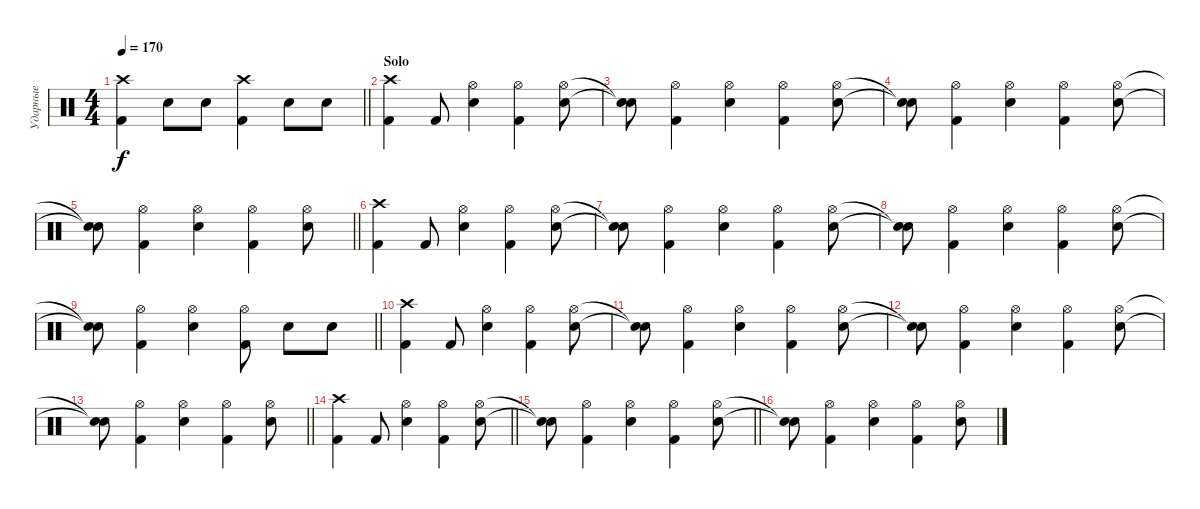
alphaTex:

\track ("Ударные" "Ударные") {instrument percussion}
\staff {score}
\articulation defaults
\ts (4 4)
\tempo 170
\clef neutral
\barLineRight lightlight
\ks c
("Crash high (hit)" "Kick (hit) 2").4{dy f} "Snare (hit) 2".8 "Snare (hit) 2".8 ("Crash high (hit)" "Kick (hit) 2").4 "Snare (hit) 2".8 "Snare (hit) 2".8 |
\section ("" "Solo")
("Crash high (hit)" "Kick (hit) 2").4 "Kick (hit) 2".8 ("Hi-Hat (open)" "Snare (hit) 2").4 ("Hi-Hat (open)" "Kick (hit) 2").4 ("Hi-Hat (open)" "Snare (hit) 2").8 |
("Snare (hit)"{t} "Snare (hit)"{t}).8 ("Hi-Hat (open)" "Kick (hit) 2").4 ("Hi-Hat (open)" "Snare (hit) 2").4 ("Hi-Hat (open)" "Kick (hit) 2").4 ("Hi-Hat (open)" "Snare (hit) 2").8 |
("Snare (hit)"{t} "Snare (hit)"{t}).8 ("Hi-Hat (open)" "Kick (hit) 2").4 ("Hi-Hat (open)" "Snare (hit) 2").4 ("Hi-Hat (open)" "Kick (hit) 2").4 ("Hi-Hat (open)" "Snare (hit) 2").8 |
\barLineRight lightlight
("Snare (hit)"{t} "Snare (hit)"{t}).8 ("Hi-Hat (open)" "Kick (hit) 2").4 ("Hi-Hat (open)" "Snare (hit) 2").4 ("Hi-Hat (open)" "Kick (hit) 2").4 ("Hi-Hat (open)" "Snare (hit) 2").8 |
("Crash high (hit)" "Kick (hit) 2").4 "Kick (hit) 2".8 ("Hi-Hat (open)" "Snare (hit) 2").4 ("Hi-Hat (open)" "Kick (hit) 2").4 ("Hi-Hat (open)" "Snare (hit) 2").8 |
("Snare (hit)"{t} "Snare (hit)"{t}).8 ("Hi-Hat (open)" "Kick (hit) 2").4 ("Hi-Hat (open)" "Snare (hit) 2").4 ("Hi-Hat (open)" "Kick (hit) 2").4 ("Hi-Hat (open)" "Snare (hit) 2").8 |
("Snare (hit)"{t} "Snare (hit)"{t}).8 ("Hi-Hat (open)" "Kick (hit) 2").4 ("Hi-Hat (open)" "Snare (hit) 2").4 ("Hi-Hat (open)" "Kick (hit) 2").4 ("Hi-Hat (open)" "Snare (hit) 2").8 |
\barLineRight lightlight
("Snare (hit)"{t} "Snare (hit)"{t}).8 ("Hi-Hat (open)" "Kick (hit) 2").4 ("Hi-Hat (open)" "Snare (hit) 2").4 ("Kick (hit) 2" "Hi-Hat (open)").8 "Snare (hit) 2".8 "Snare (hit) 2".8 |
("Crash high (hit)" "Kick (hit) 2").4 "Kick (hit) 2".8 ("Hi-Hat (open)" "Snare (hit) 2").4 ("Hi-Hat (open)" "Kick (hit) 2").4 ("Hi-Hat (open)" "Snare (hit) 2").8 |
("Snare (hit)"{t} "Snare (hit)"{t}).8 ("Hi-Hat (open)" "Kick (hit) 2").4 ("Hi-Hat (open)" "Snare (hit) 2").4 ("Hi-Hat (open)" "Kick (hit) 2").4 ("Hi-Hat (open)" "Snare (hit) 2").8 |
("Snare (hit)"{t} "Snare (hit)"{t}).8 ("Hi-Hat (open)" "Kick (hit) 2").4 ("Hi-Hat (open)" "Snare (hit) 2").4 ("Hi-Hat (open)" "Kick (hit) 2").4 ("Hi-Hat (open)" "Snare (hit) 2").8 |
\barLineRight lightlight
("Snare (hit)"{t} "Snare (hit)"{t}).8 ("Hi-Hat (open)" "Kick (hit) 2").4 ("Hi-Hat (open)" "Snare (hit) 2").4 ("Hi-Hat (open)" "Kick (hit) 2").4 ("Hi-Hat (open)" "Snare (hit) 2").8 |
\barLineRight lightlight
("Crash high (hit)" "Kick (hit) 2").4 "Kick (hit) 2".8 ("Hi-Hat (open)" "Snare (hit) 2").4 ("Hi-Hat (open)" "Kick (hit) 2").4 ("Hi-Hat (open)" "Snare (hit) 2").8 |
\barLineRight lightlight
("Snare (hit)"{t} "Snare (hit)"{t}).8 ("Hi-Hat (open)" "Kick (hit) 2").4 ("Hi-Hat (open)" "Snare (hit) 2").4 ("Hi-Hat (open)" "Kick (hit) 2").4 ("Hi-Hat (open)" "Snare (hit) 2").8 |
("Snare (hit)"{t} "Snare (hit)"{t}).8 ("Hi-Hat (open)" "Kick (hit) 2").4 ("Hi-Hat (open)" "Snare (hit) 2").4 ("Hi-Hat (open)" "Kick (hit) 2").4 ("Hi-Hat (open)" "Snare (hit) 2").8
